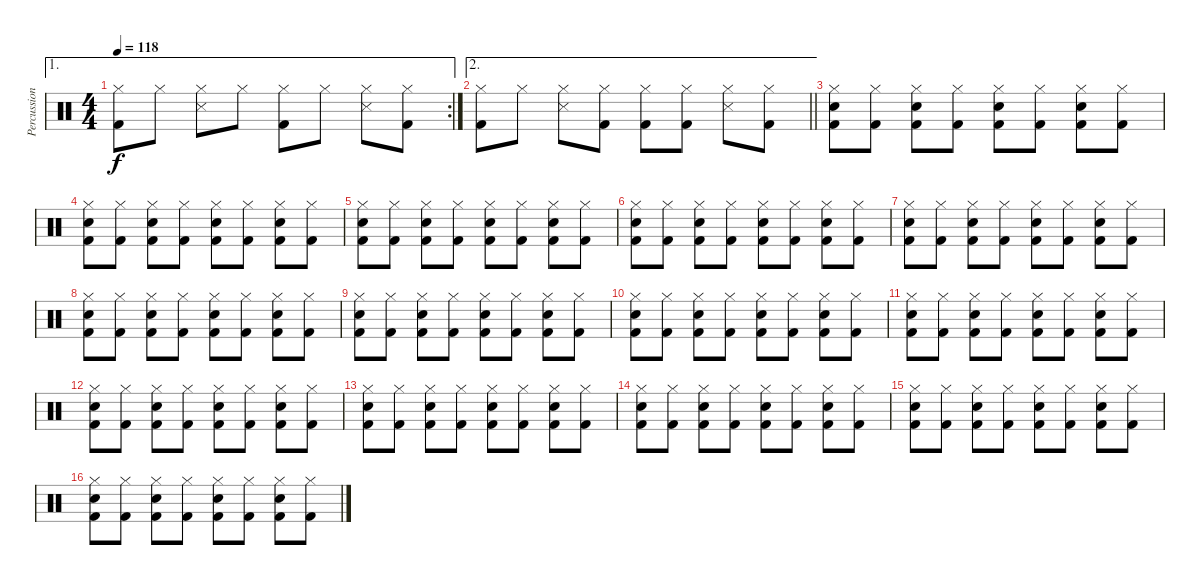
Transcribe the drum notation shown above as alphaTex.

\track ("Percussion" "Percussion") {instrument percussion}
\staff {score}
\articulation defaults
\ae 1
\rc 2
\ts (4 4)
\tempo 118
\clef neutral
\ks c
("Hi-Hat (closed)" "Kick (hit) 2").8{dy f} "Hi-Hat (closed)".8 ("Hi-Hat (closed)" "Snare (side stick) 3").8 "Hi-Hat (closed)".8 ("Hi-Hat (closed)" "Kick (hit) 2").8 "Hi-Hat (closed)".8 ("Hi-Hat (closed)" "Snare (side stick) 3").8 ("Hi-Hat (closed)" "Kick (hit) 2").8 |
\ae 2
\barLineRight lightlight
("Hi-Hat (closed)" "Kick (hit) 2").8 "Hi-Hat (closed)".8 ("Hi-Hat (closed)" "Snare (side stick) 3").8 ("Hi-Hat (closed)" "Kick (hit) 2").8 ("Hi-Hat (closed)" "Kick (hit) 2").8 ("Hi-Hat (closed)" "Kick (hit) 2").8 ("Hi-Hat (closed)" "Snare (side stick) 3").8 ("Hi-Hat (closed)" "Kick (hit) 2").8 |
("Hi-Hat (closed)" "Hand Clap (hit)" "Kick (hit) 2").8 ("Hi-Hat (closed)" "Kick (hit) 2").8 ("Hi-Hat (closed)" "Hand Clap (hit)" "Kick (hit) 2").8 ("Hi-Hat (closed)" "Kick (hit) 2").8 ("Hi-Hat (closed)" "Hand Clap (hit)" "Kick (hit) 2").8 ("Hi-Hat (closed)" "Kick (hit) 2").8 ("Hi-Hat (closed)" "Hand Clap (hit)" "Kick (hit) 2").8 ("Hi-Hat (closed)" "Kick (hit) 2").8 |
("Hi-Hat (closed)" "Hand Clap (hit)" "Kick (hit) 2").8 ("Hi-Hat (closed)" "Kick (hit) 2").8 ("Hi-Hat (closed)" "Hand Clap (hit)" "Kick (hit) 2").8 ("Hi-Hat (closed)" "Kick (hit) 2").8 ("Hi-Hat (closed)" "Hand Clap (hit)" "Kick (hit) 2").8 ("Hi-Hat (closed)" "Kick (hit) 2").8 ("Hi-Hat (closed)" "Hand Clap (hit)" "Kick (hit) 2").8 ("Hi-Hat (closed)" "Kick (hit) 2").8 |
("Hi-Hat (closed)" "Hand Clap (hit)" "Kick (hit) 2").8 ("Hi-Hat (closed)" "Kick (hit) 2").8 ("Hi-Hat (closed)" "Hand Clap (hit)" "Kick (hit) 2").8 ("Hi-Hat (closed)" "Kick (hit) 2").8 ("Hi-Hat (closed)" "Hand Clap (hit)" "Kick (hit) 2").8 ("Hi-Hat (closed)" "Kick (hit) 2").8 ("Hi-Hat (closed)" "Hand Clap (hit)" "Kick (hit) 2").8 ("Hi-Hat (closed)" "Kick (hit) 2").8 |
("Hi-Hat (closed)" "Hand Clap (hit)" "Kick (hit) 2").8 ("Hi-Hat (closed)" "Kick (hit) 2").8 ("Hi-Hat (closed)" "Hand Clap (hit)" "Kick (hit) 2").8 ("Hi-Hat (closed)" "Kick (hit) 2").8 ("Hi-Hat (closed)" "Hand Clap (hit)" "Kick (hit) 2").8 ("Hi-Hat (closed)" "Kick (hit) 2").8 ("Hi-Hat (closed)" "Hand Clap (hit)" "Kick (hit) 2").8 ("Hi-Hat (closed)" "Kick (hit) 2").8 |
("Hi-Hat (closed)" "Hand Clap (hit)" "Kick (hit) 2").8 ("Hi-Hat (closed)" "Kick (hit) 2").8 ("Hi-Hat (closed)" "Hand Clap (hit)" "Kick (hit) 2").8 ("Hi-Hat (closed)" "Kick (hit) 2").8 ("Hi-Hat (closed)" "Hand Clap (hit)" "Kick (hit) 2").8 ("Hi-Hat (closed)" "Kick (hit) 2").8 ("Hi-Hat (closed)" "Hand Clap (hit)" "Kick (hit) 2").8 ("Hi-Hat (closed)" "Kick (hit) 2").8 |
("Hi-Hat (closed)" "Hand Clap (hit)" "Kick (hit) 2").8 ("Hi-Hat (closed)" "Kick (hit) 2").8 ("Hi-Hat (closed)" "Hand Clap (hit)" "Kick (hit) 2").8 ("Hi-Hat (closed)" "Kick (hit) 2").8 ("Hi-Hat (closed)" "Hand Clap (hit)" "Kick (hit) 2").8 ("Hi-Hat (closed)" "Kick (hit) 2").8 ("Hi-Hat (closed)" "Hand Clap (hit)" "Kick (hit) 2").8 ("Hi-Hat (closed)" "Kick (hit) 2").8 |
("Hi-Hat (closed)" "Hand Clap (hit)" "Kick (hit) 2").8 ("Hi-Hat (closed)" "Kick (hit) 2").8 ("Hi-Hat (closed)" "Hand Clap (hit)" "Kick (hit) 2").8 ("Hi-Hat (closed)" "Kick (hit) 2").8 ("Hi-Hat (closed)" "Hand Clap (hit)" "Kick (hit) 2").8 ("Hi-Hat (closed)" "Kick (hit) 2").8 ("Hi-Hat (closed)" "Hand Clap (hit)" "Kick (hit) 2").8 ("Hi-Hat (closed)" "Kick (hit) 2").8 |
("Hi-Hat (closed)" "Hand Clap (hit)" "Kick (hit) 2").8 ("Hi-Hat (closed)" "Kick (hit) 2").8 ("Hi-Hat (closed)" "Hand Clap (hit)" "Kick (hit) 2").8 ("Hi-Hat (closed)" "Kick (hit) 2").8 ("Hi-Hat (closed)" "Hand Clap (hit)" "Kick (hit) 2").8 ("Hi-Hat (closed)" "Kick (hit) 2").8 ("Hi-Hat (closed)" "Hand Clap (hit)" "Kick (hit) 2").8 ("Hi-Hat (closed)" "Kick (hit) 2").8 |
("Hi-Hat (closed)" "Hand Clap (hit)" "Kick (hit) 2").8 ("Hi-Hat (closed)" "Kick (hit) 2").8 ("Hi-Hat (closed)" "Hand Clap (hit)" "Kick (hit) 2").8 ("Hi-Hat (closed)" "Kick (hit) 2").8 ("Hi-Hat (closed)" "Hand Clap (hit)" "Kick (hit) 2").8 ("Hi-Hat (closed)" "Kick (hit) 2").8 ("Hi-Hat (closed)" "Hand Clap (hit)" "Kick (hit) 2").8 ("Hi-Hat (closed)" "Kick (hit) 2").8 |
("Hi-Hat (closed)" "Hand Clap (hit)" "Kick (hit) 2").8 ("Hi-Hat (closed)" "Kick (hit) 2").8 ("Hi-Hat (closed)" "Hand Clap (hit)" "Kick (hit) 2").8 ("Hi-Hat (closed)" "Kick (hit) 2").8 ("Hi-Hat (closed)" "Hand Clap (hit)" "Kick (hit) 2").8 ("Hi-Hat (closed)" "Kick (hit) 2").8 ("Hi-Hat (closed)" "Hand Clap (hit)" "Kick (hit) 2").8 ("Hi-Hat (closed)" "Kick (hit) 2").8 |
("Hi-Hat (closed)" "Hand Clap (hit)" "Kick (hit) 2").8 ("Hi-Hat (closed)" "Kick (hit) 2").8 ("Hi-Hat (closed)" "Hand Clap (hit)" "Kick (hit) 2").8 ("Hi-Hat (closed)" "Kick (hit) 2").8 ("Hi-Hat (closed)" "Hand Clap (hit)" "Kick (hit) 2").8 ("Hi-Hat (closed)" "Kick (hit) 2").8 ("Hi-Hat (closed)" "Hand Clap (hit)" "Kick (hit) 2").8 ("Hi-Hat (closed)" "Kick (hit) 2").8 |
("Hi-Hat (closed)" "Hand Clap (hit)" "Kick (hit) 2").8 ("Hi-Hat (closed)" "Kick (hit) 2").8 ("Hi-Hat (closed)" "Hand Clap (hit)" "Kick (hit) 2").8 ("Hi-Hat (closed)" "Kick (hit) 2").8 ("Hi-Hat (closed)" "Hand Clap (hit)" "Kick (hit) 2").8 ("Hi-Hat (closed)" "Kick (hit) 2").8 ("Hi-Hat (closed)" "Hand Clap (hit)" "Kick (hit) 2").8 ("Hi-Hat (closed)" "Kick (hit) 2").8 |
("Hi-Hat (closed)" "Hand Clap (hit)" "Kick (hit) 2").8 ("Hi-Hat (closed)" "Kick (hit) 2").8 ("Hi-Hat (closed)" "Hand Clap (hit)" "Kick (hit) 2").8 ("Hi-Hat (closed)" "Kick (hit) 2").8 ("Hi-Hat (closed)" "Hand Clap (hit)" "Kick (hit) 2").8 ("Hi-Hat (closed)" "Kick (hit) 2").8 ("Hi-Hat (closed)" "Hand Clap (hit)" "Kick (hit) 2").8 ("Hi-Hat (closed)" "Kick (hit) 2").8 |
("Hi-Hat (closed)" "Hand Clap (hit)" "Kick (hit) 2").8 ("Hi-Hat (closed)" "Kick (hit) 2").8 ("Hi-Hat (closed)" "Hand Clap (hit)" "Kick (hit) 2").8 ("Hi-Hat (closed)" "Kick (hit) 2").8 ("Hi-Hat (closed)" "Hand Clap (hit)" "Kick (hit) 2").8 ("Hi-Hat (closed)" "Kick (hit) 2").8 ("Hi-Hat (closed)" "Hand Clap (hit)" "Kick (hit) 2").8 ("Hi-Hat (closed)" "Kick (hit) 2").8
